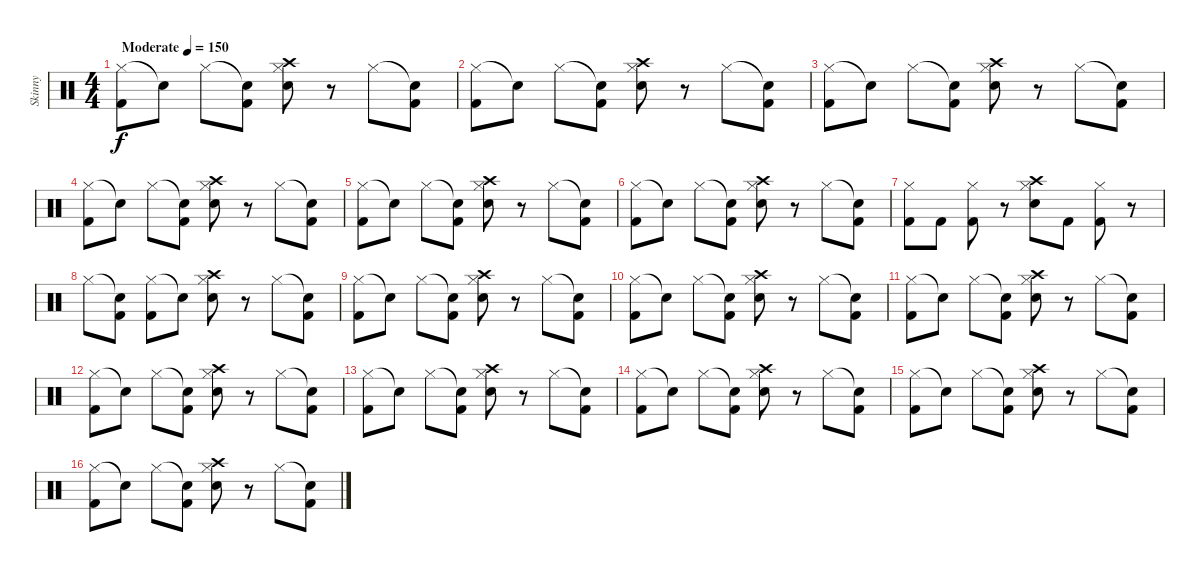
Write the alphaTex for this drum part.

\track ("Skinny" "Skinny") {instrument percussion}
\staff {score}
\articulation defaults
\ts (4 4)
\tempo (150 "Moderate")
\clef neutral
\ks c
("Hi-Hat (closed)" "Kick (hit) 2").8{dy f} "Snare (hit)"{t}.8 "Hi-Hat (closed)".8 ("Snare (hit)"{t} "Kick (hit) 2").8 ("Crash high (hit)" "Hi-Hat (closed)" "Electric Snare (hit)").8 r.8 "Hi-Hat (closed)".8 ("Snare (hit)"{t} "Kick (hit) 2").8 |
("Hi-Hat (closed)" "Kick (hit) 2").8 "Snare (hit)"{t}.8 "Hi-Hat (closed)".8 ("Snare (hit)"{t} "Kick (hit) 2").8 ("Crash high (hit)" "Hi-Hat (closed)" "Electric Snare (hit)").8 r.8 "Hi-Hat (closed)".8 ("Snare (hit)"{t} "Kick (hit) 2").8 |
("Hi-Hat (closed)" "Kick (hit) 2").8 "Snare (hit)"{t}.8 "Hi-Hat (closed)".8 ("Snare (hit)"{t} "Kick (hit) 2").8 ("Crash high (hit)" "Hi-Hat (closed)" "Electric Snare (hit)").8 r.8 "Hi-Hat (closed)".8 ("Snare (hit)"{t} "Kick (hit) 2").8 |
("Hi-Hat (closed)" "Kick (hit) 2").8 "Snare (hit)"{t}.8 "Hi-Hat (closed)".8 ("Snare (hit)"{t} "Kick (hit) 2").8 ("Crash high (hit)" "Hi-Hat (closed)" "Electric Snare (hit)").8 r.8 "Hi-Hat (closed)".8 ("Snare (hit)"{t} "Kick (hit) 2").8 |
("Hi-Hat (closed)" "Kick (hit) 2").8 "Snare (hit)"{t}.8 "Hi-Hat (closed)".8 ("Snare (hit)"{t} "Kick (hit) 2").8 ("Crash high (hit)" "Hi-Hat (closed)" "Electric Snare (hit)").8 r.8 "Hi-Hat (closed)".8 ("Snare (hit)"{t} "Kick (hit) 2").8 |
("Hi-Hat (closed)" "Kick (hit) 2").8 "Snare (hit)"{t}.8 "Hi-Hat (closed)".8 ("Snare (hit)"{t} "Kick (hit) 2").8 ("Crash high (hit)" "Hi-Hat (closed)" "Electric Snare (hit)").8 r.8 "Hi-Hat (closed)".8 ("Snare (hit)"{t} "Kick (hit) 2").8 |
("Hi-Hat (closed)" "Kick (hit) 2").8 "Kick (hit) 2".8 ("Hi-Hat (closed)" "Kick (hit) 2").8 r.8 ("Crash high (hit)" "Hi-Hat (closed)" "Electric Snare (hit)").8 "Kick (hit) 2".8 ("Hi-Hat (closed)" "Kick (hit) 2").8 r.8 |
"Hi-Hat (closed)".8 ("Snare (hit)"{t} "Kick (hit) 2").8 ("Hi-Hat (closed)" "Kick (hit) 2").8 "Snare (hit)"{t}.8 ("Crash high (hit)" "Hi-Hat (closed)" "Electric Snare (hit)").8 r.8 "Hi-Hat (closed)".8 ("Snare (hit)"{t} "Kick (hit) 2").8 |
("Hi-Hat (closed)" "Kick (hit) 2").8 "Snare (hit)"{t}.8 "Hi-Hat (closed)".8 ("Snare (hit)"{t} "Kick (hit) 2").8 ("Crash high (hit)" "Hi-Hat (closed)" "Electric Snare (hit)").8 r.8 "Hi-Hat (closed)".8 ("Snare (hit)"{t} "Kick (hit) 2").8 |
("Hi-Hat (closed)" "Kick (hit) 2").8 "Snare (hit)"{t}.8 "Hi-Hat (closed)".8 ("Snare (hit)"{t} "Kick (hit) 2").8 ("Crash high (hit)" "Hi-Hat (closed)" "Electric Snare (hit)").8 r.8 "Hi-Hat (closed)".8 ("Snare (hit)"{t} "Kick (hit) 2").8 |
("Hi-Hat (closed)" "Kick (hit) 2").8 "Snare (hit)"{t}.8 "Hi-Hat (closed)".8 ("Snare (hit)"{t} "Kick (hit) 2").8 ("Crash high (hit)" "Hi-Hat (closed)" "Electric Snare (hit)").8 r.8 "Hi-Hat (closed)".8 ("Snare (hit)"{t} "Kick (hit) 2").8 |
("Hi-Hat (closed)" "Kick (hit) 2").8 "Snare (hit)"{t}.8 "Hi-Hat (closed)".8 ("Snare (hit)"{t} "Kick (hit) 2").8 ("Crash high (hit)" "Hi-Hat (closed)" "Electric Snare (hit)").8 r.8 "Hi-Hat (closed)".8 ("Snare (hit)"{t} "Kick (hit) 2").8 |
("Hi-Hat (closed)" "Kick (hit) 2").8 "Snare (hit)"{t}.8 "Hi-Hat (closed)".8 ("Snare (hit)"{t} "Kick (hit) 2").8 ("Crash high (hit)" "Hi-Hat (closed)" "Electric Snare (hit)").8 r.8 "Hi-Hat (closed)".8 ("Snare (hit)"{t} "Kick (hit) 2").8 |
("Hi-Hat (closed)" "Kick (hit) 2").8 "Snare (hit)"{t}.8 "Hi-Hat (closed)".8 ("Snare (hit)"{t} "Kick (hit) 2").8 ("Crash high (hit)" "Hi-Hat (closed)" "Electric Snare (hit)").8 r.8 "Hi-Hat (closed)".8 ("Snare (hit)"{t} "Kick (hit) 2").8 |
("Hi-Hat (closed)" "Kick (hit) 2").8 "Snare (hit)"{t}.8 "Hi-Hat (closed)".8 ("Snare (hit)"{t} "Kick (hit) 2").8 ("Crash high (hit)" "Hi-Hat (closed)" "Electric Snare (hit)").8 r.8 "Hi-Hat (closed)".8 ("Snare (hit)"{t} "Kick (hit) 2").8 |
("Hi-Hat (closed)" "Kick (hit) 2").8 "Snare (hit)"{t}.8 "Hi-Hat (closed)".8 ("Snare (hit)"{t} "Kick (hit) 2").8 ("Crash high (hit)" "Hi-Hat (closed)" "Electric Snare (hit)").8 r.8 "Hi-Hat (closed)".8 ("Snare (hit)"{t} "Kick (hit) 2").8
